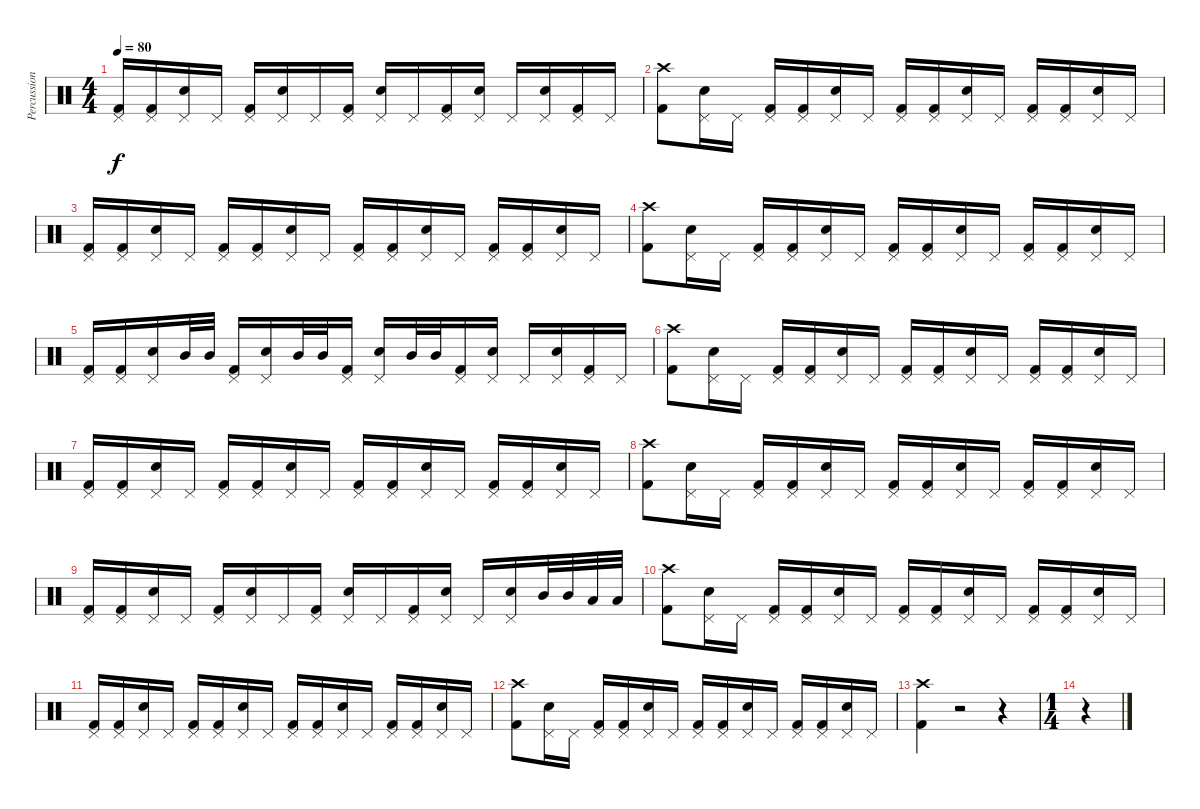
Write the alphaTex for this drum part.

\track ("Percussions" "Percussion") {instrument percussion}
\staff {score}
\articulation defaults
\ts (4 4)
\tempo 80
\clef neutral
\ks c
("Pedal Hi-Hat (hit)" "Kick (hit) 2").16{dy f} ("Pedal Hi-Hat (hit)" "Kick (hit) 2").16 ("Pedal Hi-Hat (hit)" "Electric Snare (hit)").16 "Pedal Hi-Hat (hit)".16 ("Pedal Hi-Hat (hit)" "Kick (hit) 2").16 ("Pedal Hi-Hat (hit)" "Electric Snare (hit)").16 "Pedal Hi-Hat (hit)".16 ("Pedal Hi-Hat (hit)" "Kick (hit) 2").16 ("Pedal Hi-Hat (hit)" "Electric Snare (hit)").16 "Pedal Hi-Hat (hit)".16 ("Pedal Hi-Hat (hit)" "Kick (hit) 2").16 ("Pedal Hi-Hat (hit)" "Electric Snare (hit)").16 "Pedal Hi-Hat (hit)".16 ("Pedal Hi-Hat (hit)" "Electric Snare (hit)").16 ("Pedal Hi-Hat (hit)" "Kick (hit) 2").16 "Pedal Hi-Hat (hit)".16 |
("Crash high (hit)" "Kick (hit) 2").8 ("Pedal Hi-Hat (hit)" "Electric Snare (hit)").16 "Pedal Hi-Hat (hit)".16 ("Pedal Hi-Hat (hit)" "Kick (hit) 2").16 ("Pedal Hi-Hat (hit)" "Kick (hit) 2").16 ("Pedal Hi-Hat (hit)" "Electric Snare (hit)").16 "Pedal Hi-Hat (hit)".16 ("Pedal Hi-Hat (hit)" "Kick (hit) 2").16 ("Pedal Hi-Hat (hit)" "Kick (hit) 2").16 ("Pedal Hi-Hat (hit)" "Electric Snare (hit)").16 "Pedal Hi-Hat (hit)".16 ("Pedal Hi-Hat (hit)" "Kick (hit) 2").16 ("Pedal Hi-Hat (hit)" "Kick (hit) 2").16 ("Pedal Hi-Hat (hit)" "Electric Snare (hit)").16 "Pedal Hi-Hat (hit)".16 |
("Pedal Hi-Hat (hit)" "Kick (hit) 2").16 ("Pedal Hi-Hat (hit)" "Kick (hit) 2").16 ("Pedal Hi-Hat (hit)" "Electric Snare (hit)").16 "Pedal Hi-Hat (hit)".16 ("Pedal Hi-Hat (hit)" "Kick (hit) 2").16 ("Pedal Hi-Hat (hit)" "Kick (hit) 2").16 ("Pedal Hi-Hat (hit)" "Electric Snare (hit)").16 "Pedal Hi-Hat (hit)".16 ("Pedal Hi-Hat (hit)" "Kick (hit) 2").16 ("Pedal Hi-Hat (hit)" "Kick (hit) 2").16 ("Pedal Hi-Hat (hit)" "Electric Snare (hit)").16 "Pedal Hi-Hat (hit)".16 ("Pedal Hi-Hat (hit)" "Kick (hit) 2").16 ("Pedal Hi-Hat (hit)" "Kick (hit) 2").16 ("Pedal Hi-Hat (hit)" "Electric Snare (hit)").16 "Pedal Hi-Hat (hit)".16 |
("Crash high (hit)" "Kick (hit) 2").8 ("Pedal Hi-Hat (hit)" "Electric Snare (hit)").16 "Pedal Hi-Hat (hit)".16 ("Pedal Hi-Hat (hit)" "Kick (hit) 2").16 ("Pedal Hi-Hat (hit)" "Kick (hit) 2").16 ("Pedal Hi-Hat (hit)" "Electric Snare (hit)").16 "Pedal Hi-Hat (hit)".16 ("Pedal Hi-Hat (hit)" "Kick (hit) 2").16 ("Pedal Hi-Hat (hit)" "Kick (hit) 2").16 ("Pedal Hi-Hat (hit)" "Electric Snare (hit)").16 "Pedal Hi-Hat (hit)".16 ("Pedal Hi-Hat (hit)" "Kick (hit) 2").16 ("Pedal Hi-Hat (hit)" "Kick (hit) 2").16 ("Pedal Hi-Hat (hit)" "Electric Snare (hit)").16 "Pedal Hi-Hat (hit)".16 |
("Pedal Hi-Hat (hit)" "Kick (hit) 2").16 ("Pedal Hi-Hat (hit)" "Kick (hit) 2").16 ("Pedal Hi-Hat (hit)" "Electric Snare (hit)").16 "Mid Tom (hit)".32 "Mid Tom (hit)".32 ("Pedal Hi-Hat (hit)" "Kick (hit) 2").16 ("Pedal Hi-Hat (hit)" "Electric Snare (hit)").16 "Mid Tom (hit)".32 "Mid Tom (hit)".32 ("Pedal Hi-Hat (hit)" "Kick (hit) 2").16 ("Pedal Hi-Hat (hit)" "Electric Snare (hit)").16 "Mid Tom (hit)".32 "Mid Tom (hit)".32 ("Pedal Hi-Hat (hit)" "Kick (hit) 2").16 ("Pedal Hi-Hat (hit)" "Electric Snare (hit)").16 "Pedal Hi-Hat (hit)".16 ("Pedal Hi-Hat (hit)" "Electric Snare (hit)").16 ("Pedal Hi-Hat (hit)" "Kick (hit) 2").16 "Pedal Hi-Hat (hit)".16 |
("Crash high (hit)" "Kick (hit) 2").8 ("Pedal Hi-Hat (hit)" "Electric Snare (hit)").16 "Pedal Hi-Hat (hit)".16 ("Pedal Hi-Hat (hit)" "Kick (hit) 2").16 ("Pedal Hi-Hat (hit)" "Kick (hit) 2").16 ("Pedal Hi-Hat (hit)" "Electric Snare (hit)").16 "Pedal Hi-Hat (hit)".16 ("Pedal Hi-Hat (hit)" "Kick (hit) 2").16 ("Pedal Hi-Hat (hit)" "Kick (hit) 2").16 ("Pedal Hi-Hat (hit)" "Electric Snare (hit)").16 "Pedal Hi-Hat (hit)".16 ("Pedal Hi-Hat (hit)" "Kick (hit) 2").16 ("Pedal Hi-Hat (hit)" "Kick (hit) 2").16 ("Pedal Hi-Hat (hit)" "Electric Snare (hit)").16 "Pedal Hi-Hat (hit)".16 |
("Pedal Hi-Hat (hit)" "Kick (hit) 2").16 ("Pedal Hi-Hat (hit)" "Kick (hit) 2").16 ("Pedal Hi-Hat (hit)" "Electric Snare (hit)").16 "Pedal Hi-Hat (hit)".16 ("Pedal Hi-Hat (hit)" "Kick (hit) 2").16 ("Pedal Hi-Hat (hit)" "Kick (hit) 2").16 ("Pedal Hi-Hat (hit)" "Electric Snare (hit)").16 "Pedal Hi-Hat (hit)".16 ("Pedal Hi-Hat (hit)" "Kick (hit) 2").16 ("Pedal Hi-Hat (hit)" "Kick (hit) 2").16 ("Pedal Hi-Hat (hit)" "Electric Snare (hit)").16 "Pedal Hi-Hat (hit)".16 ("Pedal Hi-Hat (hit)" "Kick (hit) 2").16 ("Pedal Hi-Hat (hit)" "Kick (hit) 2").16 ("Pedal Hi-Hat (hit)" "Electric Snare (hit)").16 "Pedal Hi-Hat (hit)".16 |
("Crash high (hit)" "Kick (hit) 2").8 ("Pedal Hi-Hat (hit)" "Electric Snare (hit)").16 "Pedal Hi-Hat (hit)".16 ("Pedal Hi-Hat (hit)" "Kick (hit) 2").16 ("Pedal Hi-Hat (hit)" "Kick (hit) 2").16 ("Pedal Hi-Hat (hit)" "Electric Snare (hit)").16 "Pedal Hi-Hat (hit)".16 ("Pedal Hi-Hat (hit)" "Kick (hit) 2").16 ("Pedal Hi-Hat (hit)" "Kick (hit) 2").16 ("Pedal Hi-Hat (hit)" "Electric Snare (hit)").16 "Pedal Hi-Hat (hit)".16 ("Pedal Hi-Hat (hit)" "Kick (hit) 2").16 ("Pedal Hi-Hat (hit)" "Kick (hit) 2").16 ("Pedal Hi-Hat (hit)" "Electric Snare (hit)").16 "Pedal Hi-Hat (hit)".16 |
("Pedal Hi-Hat (hit)" "Kick (hit) 2").16 ("Pedal Hi-Hat (hit)" "Kick (hit) 2").16 ("Pedal Hi-Hat (hit)" "Electric Snare (hit)").16 "Pedal Hi-Hat (hit)".16 ("Pedal Hi-Hat (hit)" "Kick (hit) 2").16 ("Pedal Hi-Hat (hit)" "Electric Snare (hit)").16 "Pedal Hi-Hat (hit)".16 ("Pedal Hi-Hat (hit)" "Kick (hit) 2").16 ("Pedal Hi-Hat (hit)" "Electric Snare (hit)").16 "Pedal Hi-Hat (hit)".16 ("Pedal Hi-Hat (hit)" "Kick (hit) 2").16 ("Pedal Hi-Hat (hit)" "Electric Snare (hit)").16 "Pedal Hi-Hat (hit)".16 ("Pedal Hi-Hat (hit)" "Electric Snare (hit)").16 "Mid Tom (hit)".32 "Mid Tom (hit)".32 "Low Tom (hit)".32 "Low Tom (hit)".32 |
("Crash high (hit)" "Kick (hit) 2").8 ("Pedal Hi-Hat (hit)" "Electric Snare (hit)").16 "Pedal Hi-Hat (hit)".16 ("Pedal Hi-Hat (hit)" "Kick (hit) 2").16 ("Pedal Hi-Hat (hit)" "Kick (hit) 2").16 ("Pedal Hi-Hat (hit)" "Electric Snare (hit)").16 "Pedal Hi-Hat (hit)".16 ("Pedal Hi-Hat (hit)" "Kick (hit) 2").16 ("Pedal Hi-Hat (hit)" "Kick (hit) 2").16 ("Pedal Hi-Hat (hit)" "Electric Snare (hit)").16 "Pedal Hi-Hat (hit)".16 ("Pedal Hi-Hat (hit)" "Kick (hit) 2").16 ("Pedal Hi-Hat (hit)" "Kick (hit) 2").16 ("Pedal Hi-Hat (hit)" "Electric Snare (hit)").16 "Pedal Hi-Hat (hit)".16 |
("Pedal Hi-Hat (hit)" "Kick (hit) 2").16 ("Pedal Hi-Hat (hit)" "Kick (hit) 2").16 ("Pedal Hi-Hat (hit)" "Electric Snare (hit)").16 "Pedal Hi-Hat (hit)".16 ("Pedal Hi-Hat (hit)" "Kick (hit) 2").16 ("Pedal Hi-Hat (hit)" "Kick (hit) 2").16 ("Pedal Hi-Hat (hit)" "Electric Snare (hit)").16 "Pedal Hi-Hat (hit)".16 ("Pedal Hi-Hat (hit)" "Kick (hit) 2").16 ("Pedal Hi-Hat (hit)" "Kick (hit) 2").16 ("Pedal Hi-Hat (hit)" "Electric Snare (hit)").16 "Pedal Hi-Hat (hit)".16 ("Pedal Hi-Hat (hit)" "Kick (hit) 2").16 ("Pedal Hi-Hat (hit)" "Kick (hit) 2").16 ("Pedal Hi-Hat (hit)" "Electric Snare (hit)").16 "Pedal Hi-Hat (hit)".16 |
("Crash high (hit)" "Kick (hit) 2").8 ("Pedal Hi-Hat (hit)" "Electric Snare (hit)").16 "Pedal Hi-Hat (hit)".16 ("Pedal Hi-Hat (hit)" "Kick (hit) 2").16 ("Pedal Hi-Hat (hit)" "Kick (hit) 2").16 ("Pedal Hi-Hat (hit)" "Electric Snare (hit)").16 "Pedal Hi-Hat (hit)".16 ("Pedal Hi-Hat (hit)" "Kick (hit) 2").16 ("Pedal Hi-Hat (hit)" "Kick (hit) 2").16 ("Pedal Hi-Hat (hit)" "Electric Snare (hit)").16 "Pedal Hi-Hat (hit)".16 ("Pedal Hi-Hat (hit)" "Kick (hit) 2").16 ("Pedal Hi-Hat (hit)" "Kick (hit) 2").16 ("Pedal Hi-Hat (hit)" "Electric Snare (hit)").16 "Pedal Hi-Hat (hit)".16 |
("Crash high (hit)" "Kick (hit) 2").4 r.2 r.4 |
\ts (1 4)
r.4
